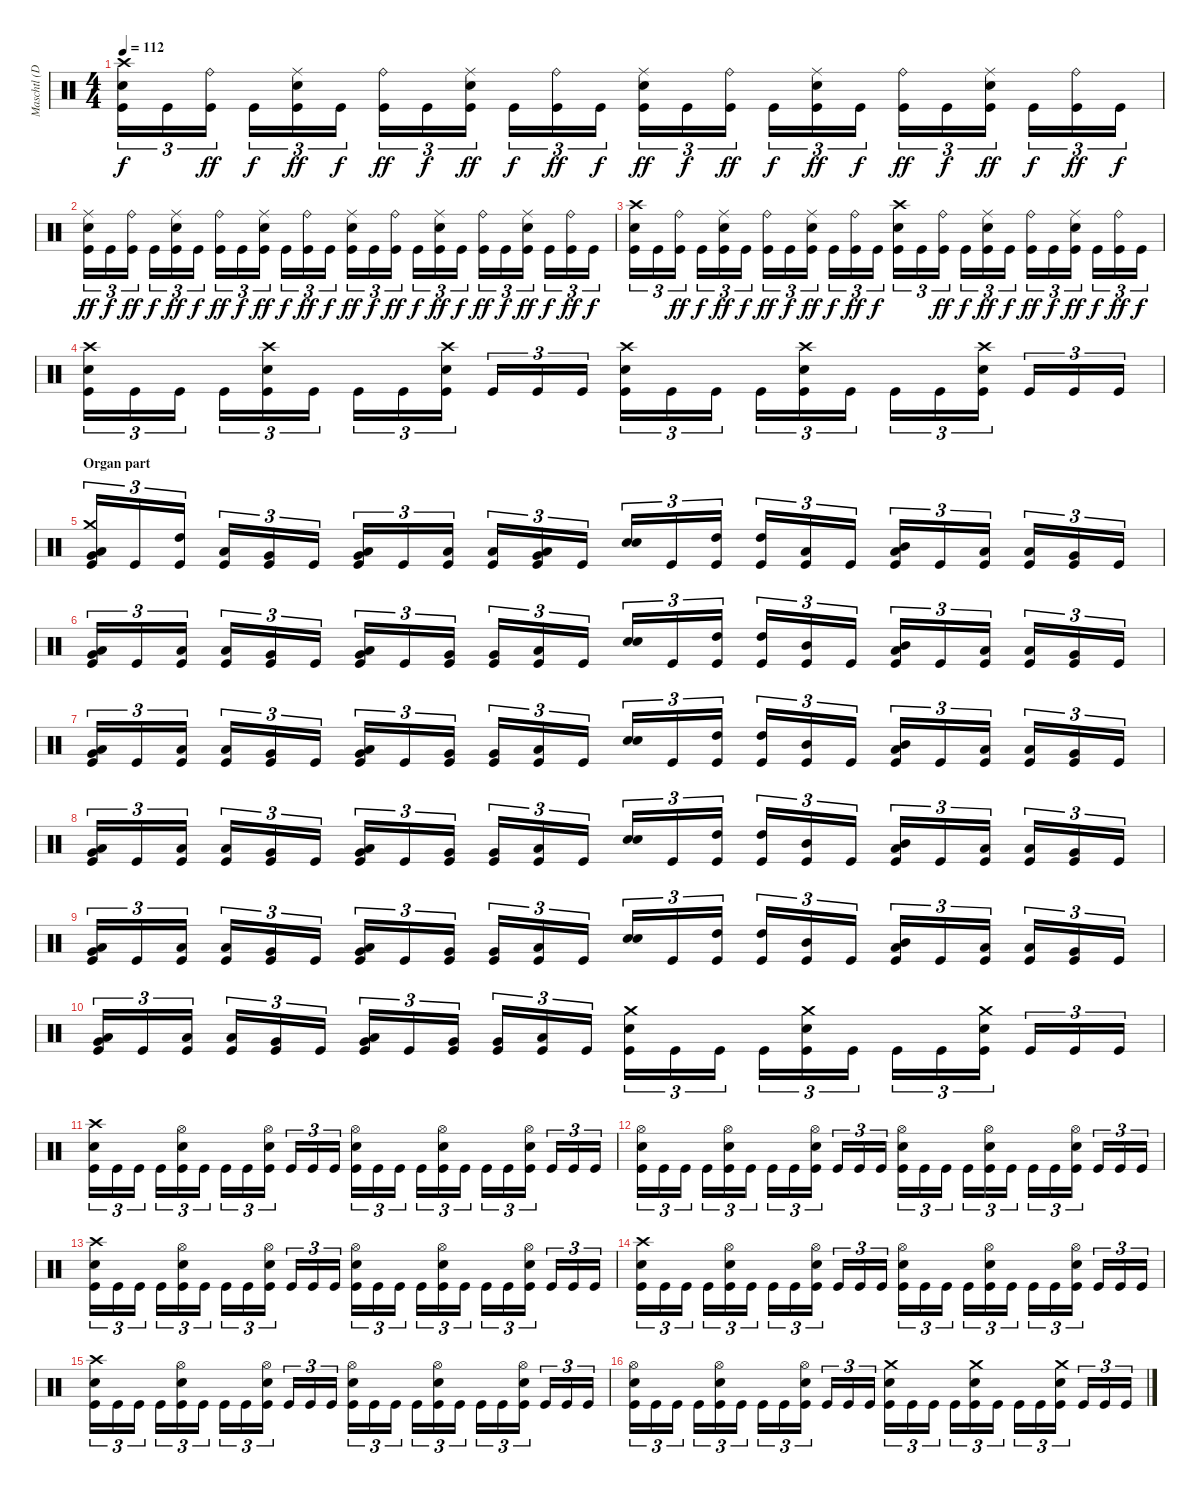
\track ("Maschtl (Drums)" "Maschtl (D") {instrument percussion}
\staff {score}
\articulation defaults
\ts (4 4)
\tempo 112
\clef neutral
\ks c
("Crash high (hit)" "Electric Snare (hit)" "Kick (hit)").16{tu (3 2) dy f} "Kick (hit)".16{tu (3 2)} ("Ride (bell)" "Kick (hit)").16{tu (3 2) dy ff} "Kick (hit)".16{tu (3 2) dy f} ("Ride (middle)" "Electric Snare (hit)" "Kick (hit)").16{tu (3 2) dy ff} "Kick (hit)".16{tu (3 2) dy f} ("Ride (bell)" "Kick (hit)").16{tu (3 2) dy ff} "Kick (hit)".16{tu (3 2) dy f} ("Ride (middle)" "Electric Snare (hit)" "Kick (hit)").16{tu (3 2) dy ff} "Kick (hit)".16{tu (3 2) dy f} ("Ride (bell)" "Kick (hit)").16{tu (3 2) dy ff} "Kick (hit)".16{tu (3 2) dy f} ("Ride (middle)" "Electric Snare (hit)" "Kick (hit)").16{tu (3 2) dy ff} "Kick (hit)".16{tu (3 2) dy f} ("Ride (bell)" "Kick (hit)").16{tu (3 2) dy ff} "Kick (hit)".16{tu (3 2) dy f} ("Ride (middle)" "Electric Snare (hit)" "Kick (hit)").16{tu (3 2) dy ff} "Kick (hit)".16{tu (3 2) dy f} ("Ride (bell)" "Kick (hit)").16{tu (3 2) dy ff} "Kick (hit)".16{tu (3 2) dy f} ("Ride (middle)" "Electric Snare (hit)" "Kick (hit)").16{tu (3 2) dy ff} "Kick (hit)".16{tu (3 2) dy f} ("Ride (bell)" "Kick (hit)").16{tu (3 2) dy ff} "Kick (hit)".16{tu (3 2) dy f} |
("Ride (middle)" "Electric Snare (hit)" "Kick (hit)").16{tu (3 2) dy ff} "Kick (hit)".16{tu (3 2) dy f} ("Ride (bell)" "Kick (hit)").16{tu (3 2) dy ff} "Kick (hit)".16{tu (3 2) dy f} ("Ride (middle)" "Electric Snare (hit)" "Kick (hit)").16{tu (3 2) dy ff} "Kick (hit)".16{tu (3 2) dy f} ("Ride (bell)" "Kick (hit)").16{tu (3 2) dy ff} "Kick (hit)".16{tu (3 2) dy f} ("Ride (middle)" "Electric Snare (hit)" "Kick (hit)").16{tu (3 2) dy ff} "Kick (hit)".16{tu (3 2) dy f} ("Ride (bell)" "Kick (hit)").16{tu (3 2) dy ff} "Kick (hit)".16{tu (3 2) dy f} ("Ride (middle)" "Electric Snare (hit)" "Kick (hit)").16{tu (3 2) dy ff} "Kick (hit)".16{tu (3 2) dy f} ("Ride (bell)" "Kick (hit)").16{tu (3 2) dy ff} "Kick (hit)".16{tu (3 2) dy f} ("Ride (middle)" "Electric Snare (hit)" "Kick (hit)").16{tu (3 2) dy ff} "Kick (hit)".16{tu (3 2) dy f} ("Ride (bell)" "Kick (hit)").16{tu (3 2) dy ff} "Kick (hit)".16{tu (3 2) dy f} ("Ride (middle)" "Electric Snare (hit)" "Kick (hit)").16{tu (3 2) dy ff} "Kick (hit)".16{tu (3 2) dy f} ("Ride (bell)" "Kick (hit)").16{tu (3 2) dy ff} "Kick (hit)".16{tu (3 2) dy f} |
("Crash high (hit)" "Electric Snare (hit)" "Kick (hit)").16{tu (3 2)} "Kick (hit)".16{tu (3 2)} ("Ride (bell)" "Kick (hit)").16{tu (3 2) dy ff} "Kick (hit)".16{tu (3 2) dy f} ("Ride (middle)" "Electric Snare (hit)" "Kick (hit)").16{tu (3 2) dy ff} "Kick (hit)".16{tu (3 2) dy f} ("Ride (bell)" "Kick (hit)").16{tu (3 2) dy ff} "Kick (hit)".16{tu (3 2) dy f} ("Ride (middle)" "Electric Snare (hit)" "Kick (hit)").16{tu (3 2) dy ff} "Kick (hit)".16{tu (3 2) dy f} ("Ride (bell)" "Kick (hit)").16{tu (3 2) dy ff} "Kick (hit)".16{tu (3 2) dy f} ("Crash high (hit)" "Electric Snare (hit)" "Kick (hit)").16{tu (3 2)} "Kick (hit)".16{tu (3 2)} ("Ride (bell)" "Kick (hit)").16{tu (3 2) dy ff} "Kick (hit)".16{tu (3 2) dy f} ("Ride (middle)" "Electric Snare (hit)" "Kick (hit)").16{tu (3 2) dy ff} "Kick (hit)".16{tu (3 2) dy f} ("Ride (bell)" "Kick (hit)").16{tu (3 2) dy ff} "Kick (hit)".16{tu (3 2) dy f} ("Ride (middle)" "Electric Snare (hit)" "Kick (hit)").16{tu (3 2) dy ff} "Kick (hit)".16{tu (3 2) dy f} ("Ride (bell)" "Kick (hit)").16{tu (3 2) dy ff} "Kick (hit)".16{tu (3 2) dy f} |
("Crash high (hit)" "Electric Snare (hit)" "Kick (hit)").16{tu (3 2)} "Kick (hit)".16{tu (3 2)} "Kick (hit)".16{tu (3 2)} "Kick (hit)".16{tu (3 2)} ("Crash high (hit)" "Electric Snare (hit)" "Kick (hit)").16{tu (3 2)} "Kick (hit)".16{tu (3 2)} "Kick (hit)".16{tu (3 2)} "Kick (hit)".16{tu (3 2)} ("Crash high (hit)" "Electric Snare (hit)" "Kick (hit)").16{tu (3 2)} "Kick (hit)".16{tu (3 2)} "Kick (hit)".16{tu (3 2)} "Kick (hit)".16{tu (3 2)} ("Crash high (hit)" "Electric Snare (hit)" "Kick (hit)").16{tu (3 2)} "Kick (hit)".16{tu (3 2)} "Kick (hit)".16{tu (3 2)} "Kick (hit)".16{tu (3 2)} ("Crash high (hit)" "Electric Snare (hit)" "Kick (hit)").16{tu (3 2)} "Kick (hit)".16{tu (3 2)} "Kick (hit)".16{tu (3 2)} "Kick (hit)".16{tu (3 2)} ("Crash high (hit)" "Electric Snare (hit)" "Kick (hit)").16{tu (3 2)} "Kick (hit)".16{tu (3 2)} "Kick (hit)".16{tu (3 2)} "Kick (hit)".16{tu (3 2)} |
\section ("" "Organ part")
("Crash medium (hit)" "Low Tom (hit)" "Very Low Tom (hit)" "Kick (hit)").16{tu (3 2)} "Kick (hit)".16{tu (3 2)} ("High Tom (hit)" "Kick (hit)").16{tu (3 2)} ("Low Tom (hit)" "Kick (hit)").16{tu (3 2)} ("Very Low Tom (hit)" "Kick (hit)").16{tu (3 2)} "Kick (hit)".16{tu (3 2)} ("Low Tom (hit)" "Very Low Tom (hit)" "Kick (hit)").16{tu (3 2) bd 60} "Kick (hit)".16{tu (3 2)} ("Low Tom (hit)" "Kick (hit)").16{tu (3 2)} ("Low Tom (hit)" "Kick (hit)").16{tu (3 2)} ("Low Tom (hit)" "Very Low Tom (hit)" "Kick (hit)").16{tu (3 2) bd 60} "Kick (hit)".16{tu (3 2)} ("Electric Snare (hit)" "Electric Snare (hit)").16{tu (3 2) bd 60} "Kick (hit)".16{tu (3 2)} ("High Tom (hit)" "Kick (hit)").16{tu (3 2)} ("High Tom (hit)" "Kick (hit)").16{tu (3 2)} ("Low Tom (hit)" "Kick (hit)").16{tu (3 2)} "Kick (hit)".16{tu (3 2)} ("Mid Tom (hit)" "Low Tom (hit)" "Kick (hit)").16{tu (3 2) bd 60} "Kick (hit)".16{tu (3 2)} ("Low Tom (hit)" "Kick (hit)").16{tu (3 2)} ("Low Tom (hit)" "Kick (hit)").16{tu (3 2)} ("Very Low Tom (hit)" "Kick (hit)").16{tu (3 2)} "Kick (hit)".16{tu (3 2)} |
("Low Tom (hit)" "Very Low Tom (hit)" "Kick (hit)").16{tu (3 2) bd 60} "Kick (hit)".16{tu (3 2)} ("Low Tom (hit)" "Kick (hit)").16{tu (3 2)} ("Low Tom (hit)" "Kick (hit)").16{tu (3 2)} ("Very Low Tom (hit)" "Kick (hit)").16{tu (3 2)} "Kick (hit)".16{tu (3 2)} ("Low Tom (hit)" "Very Low Tom (hit)" "Kick (hit)").16{tu (3 2) bd 60} "Kick (hit)".16{tu (3 2)} ("Very Low Tom (hit)" "Kick (hit)").16{tu (3 2)} ("Very Low Tom (hit)" "Kick (hit)").16{tu (3 2)} ("Low Floor Tom (hit)" "Kick (hit)").16{tu (3 2)} "Kick (hit)".16{tu (3 2)} ("Electric Snare (hit)" "Electric Snare (hit)").16{tu (3 2) bd 60} "Kick (hit)".16{tu (3 2)} ("High Tom (hit)" "Kick (hit)").16{tu (3 2)} ("High Tom (hit)" "Kick (hit)").16{tu (3 2)} ("Mid Tom (hit)" "Kick (hit)").16{tu (3 2)} "Kick (hit)".16{tu (3 2)} ("Mid Tom (hit)" "Low Tom (hit)" "Kick (hit)").16{tu (3 2) bd 60} "Kick (hit)".16{tu (3 2)} ("Low Tom (hit)" "Kick (hit)").16{tu (3 2)} ("Low Tom (hit)" "Kick (hit)").16{tu (3 2)} ("Very Low Tom (hit)" "Kick (hit)").16{tu (3 2)} "Kick (hit)".16{tu (3 2)} |
("Low Tom (hit)" "Very Low Tom (hit)" "Kick (hit)").16{tu (3 2) bd 60} "Kick (hit)".16{tu (3 2)} ("Low Tom (hit)" "Kick (hit)").16{tu (3 2)} ("Low Tom (hit)" "Kick (hit)").16{tu (3 2)} ("Very Low Tom (hit)" "Kick (hit)").16{tu (3 2)} "Kick (hit)".16{tu (3 2)} ("Low Tom (hit)" "Very Low Tom (hit)" "Kick (hit)").16{tu (3 2) bd 60} "Kick (hit)".16{tu (3 2)} ("Very Low Tom (hit)" "Kick (hit)").16{tu (3 2)} ("Very Low Tom (hit)" "Kick (hit)").16{tu (3 2)} ("Low Floor Tom (hit)" "Kick (hit)").16{tu (3 2)} "Kick (hit)".16{tu (3 2)} ("Electric Snare (hit)" "Electric Snare (hit)").16{tu (3 2) bd 60} "Kick (hit)".16{tu (3 2)} ("High Tom (hit)" "Kick (hit)").16{tu (3 2)} ("High Tom (hit)" "Kick (hit)").16{tu (3 2)} ("Mid Tom (hit)" "Kick (hit)").16{tu (3 2)} "Kick (hit)".16{tu (3 2)} ("Mid Tom (hit)" "Low Tom (hit)" "Kick (hit)").16{tu (3 2) bd 60} "Kick (hit)".16{tu (3 2)} ("Low Tom (hit)" "Kick (hit)").16{tu (3 2)} ("Low Tom (hit)" "Kick (hit)").16{tu (3 2)} ("Very Low Tom (hit)" "Kick (hit)").16{tu (3 2)} "Kick (hit)".16{tu (3 2)} |
("Low Tom (hit)" "Very Low Tom (hit)" "Kick (hit)").16{tu (3 2) bd 60} "Kick (hit)".16{tu (3 2)} ("Low Tom (hit)" "Kick (hit)").16{tu (3 2)} ("Low Tom (hit)" "Kick (hit)").16{tu (3 2)} ("Very Low Tom (hit)" "Kick (hit)").16{tu (3 2)} "Kick (hit)".16{tu (3 2)} ("Low Tom (hit)" "Very Low Tom (hit)" "Kick (hit)").16{tu (3 2) bd 60} "Kick (hit)".16{tu (3 2)} ("Very Low Tom (hit)" "Kick (hit)").16{tu (3 2)} ("Very Low Tom (hit)" "Kick (hit)").16{tu (3 2)} ("Low Floor Tom (hit)" "Kick (hit)").16{tu (3 2)} "Kick (hit)".16{tu (3 2)} ("Electric Snare (hit)" "Electric Snare (hit)").16{tu (3 2) bd 60} "Kick (hit)".16{tu (3 2)} ("High Tom (hit)" "Kick (hit)").16{tu (3 2)} ("High Tom (hit)" "Kick (hit)").16{tu (3 2)} ("Mid Tom (hit)" "Kick (hit)").16{tu (3 2)} "Kick (hit)".16{tu (3 2)} ("Mid Tom (hit)" "Low Tom (hit)" "Kick (hit)").16{tu (3 2) bd 60} "Kick (hit)".16{tu (3 2)} ("Low Tom (hit)" "Kick (hit)").16{tu (3 2)} ("Low Tom (hit)" "Kick (hit)").16{tu (3 2)} ("Very Low Tom (hit)" "Kick (hit)").16{tu (3 2)} "Kick (hit)".16{tu (3 2)} |
("Low Tom (hit)" "Very Low Tom (hit)" "Kick (hit)").16{tu (3 2) bd 60} "Kick (hit)".16{tu (3 2)} ("Low Tom (hit)" "Kick (hit)").16{tu (3 2)} ("Low Tom (hit)" "Kick (hit)").16{tu (3 2)} ("Very Low Tom (hit)" "Kick (hit)").16{tu (3 2)} "Kick (hit)".16{tu (3 2)} ("Low Tom (hit)" "Very Low Tom (hit)" "Kick (hit)").16{tu (3 2) bd 60} "Kick (hit)".16{tu (3 2)} ("Very Low Tom (hit)" "Kick (hit)").16{tu (3 2)} ("Very Low Tom (hit)" "Kick (hit)").16{tu (3 2)} ("Low Floor Tom (hit)" "Kick (hit)").16{tu (3 2)} "Kick (hit)".16{tu (3 2)} ("Electric Snare (hit)" "Electric Snare (hit)").16{tu (3 2) bd 60} "Kick (hit)".16{tu (3 2)} ("High Tom (hit)" "Kick (hit)").16{tu (3 2)} ("High Tom (hit)" "Kick (hit)").16{tu (3 2)} ("Mid Tom (hit)" "Kick (hit)").16{tu (3 2)} "Kick (hit)".16{tu (3 2)} ("Mid Tom (hit)" "Low Tom (hit)" "Kick (hit)").16{tu (3 2) bd 60} "Kick (hit)".16{tu (3 2)} ("Low Tom (hit)" "Kick (hit)").16{tu (3 2)} ("Low Tom (hit)" "Kick (hit)").16{tu (3 2)} ("Very Low Tom (hit)" "Kick (hit)").16{tu (3 2)} "Kick (hit)".16{tu (3 2)} |
("Low Tom (hit)" "Very Low Tom (hit)" "Kick (hit)").16{tu (3 2) bd 60} "Kick (hit)".16{tu (3 2)} ("Low Tom (hit)" "Kick (hit)").16{tu (3 2)} ("Low Tom (hit)" "Kick (hit)").16{tu (3 2)} ("Very Low Tom (hit)" "Kick (hit)").16{tu (3 2)} "Kick (hit)".16{tu (3 2)} ("Low Tom (hit)" "Very Low Tom (hit)" "Kick (hit)").16{tu (3 2) bd 60} "Kick (hit)".16{tu (3 2)} ("Very Low Tom (hit)" "Kick (hit)").16{tu (3 2)} ("Very Low Tom (hit)" "Kick (hit)").16{tu (3 2)} ("Low Floor Tom (hit)" "Kick (hit)").16{tu (3 2)} "Kick (hit)".16{tu (3 2)} ("Crash medium (hit)" "Electric Snare (hit)" "Kick (hit)").16{tu (3 2)} "Kick (hit)".16{tu (3 2)} "Kick (hit)".16{tu (3 2)} "Kick (hit)".16{tu (3 2)} ("Crash medium (hit)" "Electric Snare (hit)" "Kick (hit)").16{tu (3 2)} "Kick (hit)".16{tu (3 2)} "Kick (hit)".16{tu (3 2)} "Kick (hit)".16{tu (3 2)} ("Crash medium (hit)" "Electric Snare (hit)" "Kick (hit)").16{tu (3 2)} "Kick (hit)".16{tu (3 2)} "Kick (hit)".16{tu (3 2)} "Kick (hit)".16{tu (3 2)} |
("Crash high (hit)" "Electric Snare (hit)" "Kick (hit)").16{tu (3 2)} "Kick (hit)".16{tu (3 2)} "Kick (hit)".16{tu (3 2)} "Kick (hit)".16{tu (3 2)} ("Hi-Hat (open)" "Electric Snare (hit)" "Kick (hit)").16{tu (3 2)} "Kick (hit)".16{tu (3 2)} "Kick (hit)".16{tu (3 2)} "Kick (hit)".16{tu (3 2)} ("Hi-Hat (open)" "Electric Snare (hit)" "Kick (hit)").16{tu (3 2)} "Kick (hit)".16{tu (3 2)} "Kick (hit)".16{tu (3 2)} "Kick (hit)".16{tu (3 2)} ("Hi-Hat (open)" "Electric Snare (hit)" "Kick (hit)").16{tu (3 2)} "Kick (hit)".16{tu (3 2)} "Kick (hit)".16{tu (3 2)} "Kick (hit)".16{tu (3 2)} ("Hi-Hat (open)" "Electric Snare (hit)" "Kick (hit)").16{tu (3 2)} "Kick (hit)".16{tu (3 2)} "Kick (hit)".16{tu (3 2)} "Kick (hit)".16{tu (3 2)} ("Hi-Hat (open)" "Electric Snare (hit)" "Kick (hit)").16{tu (3 2)} "Kick (hit)".16{tu (3 2)} "Kick (hit)".16{tu (3 2)} "Kick (hit)".16{tu (3 2)} |
("Hi-Hat (open)" "Electric Snare (hit)" "Kick (hit)").16{tu (3 2)} "Kick (hit)".16{tu (3 2)} "Kick (hit)".16{tu (3 2)} "Kick (hit)".16{tu (3 2)} ("Hi-Hat (open)" "Electric Snare (hit)" "Kick (hit)").16{tu (3 2)} "Kick (hit)".16{tu (3 2)} "Kick (hit)".16{tu (3 2)} "Kick (hit)".16{tu (3 2)} ("Hi-Hat (open)" "Electric Snare (hit)" "Kick (hit)").16{tu (3 2)} "Kick (hit)".16{tu (3 2)} "Kick (hit)".16{tu (3 2)} "Kick (hit)".16{tu (3 2)} ("Hi-Hat (open)" "Electric Snare (hit)" "Kick (hit)").16{tu (3 2)} "Kick (hit)".16{tu (3 2)} "Kick (hit)".16{tu (3 2)} "Kick (hit)".16{tu (3 2)} ("Hi-Hat (open)" "Electric Snare (hit)" "Kick (hit)").16{tu (3 2)} "Kick (hit)".16{tu (3 2)} "Kick (hit)".16{tu (3 2)} "Kick (hit)".16{tu (3 2)} ("Hi-Hat (open)" "Electric Snare (hit)" "Kick (hit)").16{tu (3 2)} "Kick (hit)".16{tu (3 2)} "Kick (hit)".16{tu (3 2)} "Kick (hit)".16{tu (3 2)} |
("Crash high (hit)" "Electric Snare (hit)" "Kick (hit)").16{tu (3 2)} "Kick (hit)".16{tu (3 2)} "Kick (hit)".16{tu (3 2)} "Kick (hit)".16{tu (3 2)} ("Hi-Hat (open)" "Electric Snare (hit)" "Kick (hit)").16{tu (3 2)} "Kick (hit)".16{tu (3 2)} "Kick (hit)".16{tu (3 2)} "Kick (hit)".16{tu (3 2)} ("Hi-Hat (open)" "Electric Snare (hit)" "Kick (hit)").16{tu (3 2)} "Kick (hit)".16{tu (3 2)} "Kick (hit)".16{tu (3 2)} "Kick (hit)".16{tu (3 2)} ("Hi-Hat (open)" "Electric Snare (hit)" "Kick (hit)").16{tu (3 2)} "Kick (hit)".16{tu (3 2)} "Kick (hit)".16{tu (3 2)} "Kick (hit)".16{tu (3 2)} ("Hi-Hat (open)" "Electric Snare (hit)" "Kick (hit)").16{tu (3 2)} "Kick (hit)".16{tu (3 2)} "Kick (hit)".16{tu (3 2)} "Kick (hit)".16{tu (3 2)} ("Hi-Hat (open)" "Electric Snare (hit)" "Kick (hit)").16{tu (3 2)} "Kick (hit)".16{tu (3 2)} "Kick (hit)".16{tu (3 2)} "Kick (hit)".16{tu (3 2)} |
("Crash high (hit)" "Electric Snare (hit)" "Kick (hit)").16{tu (3 2)} "Kick (hit)".16{tu (3 2)} "Kick (hit)".16{tu (3 2)} "Kick (hit)".16{tu (3 2)} ("Hi-Hat (open)" "Electric Snare (hit)" "Kick (hit)").16{tu (3 2)} "Kick (hit)".16{tu (3 2)} "Kick (hit)".16{tu (3 2)} "Kick (hit)".16{tu (3 2)} ("Hi-Hat (open)" "Electric Snare (hit)" "Kick (hit)").16{tu (3 2)} "Kick (hit)".16{tu (3 2)} "Kick (hit)".16{tu (3 2)} "Kick (hit)".16{tu (3 2)} ("Hi-Hat (open)" "Electric Snare (hit)" "Kick (hit)").16{tu (3 2)} "Kick (hit)".16{tu (3 2)} "Kick (hit)".16{tu (3 2)} "Kick (hit)".16{tu (3 2)} ("Hi-Hat (open)" "Electric Snare (hit)" "Kick (hit)").16{tu (3 2)} "Kick (hit)".16{tu (3 2)} "Kick (hit)".16{tu (3 2)} "Kick (hit)".16{tu (3 2)} ("Hi-Hat (open)" "Electric Snare (hit)" "Kick (hit)").16{tu (3 2)} "Kick (hit)".16{tu (3 2)} "Kick (hit)".16{tu (3 2)} "Kick (hit)".16{tu (3 2)} |
("Crash high (hit)" "Electric Snare (hit)" "Kick (hit)").16{tu (3 2)} "Kick (hit)".16{tu (3 2)} "Kick (hit)".16{tu (3 2)} "Kick (hit)".16{tu (3 2)} ("Hi-Hat (open)" "Electric Snare (hit)" "Kick (hit)").16{tu (3 2)} "Kick (hit)".16{tu (3 2)} "Kick (hit)".16{tu (3 2)} "Kick (hit)".16{tu (3 2)} ("Hi-Hat (open)" "Electric Snare (hit)" "Kick (hit)").16{tu (3 2)} "Kick (hit)".16{tu (3 2)} "Kick (hit)".16{tu (3 2)} "Kick (hit)".16{tu (3 2)} ("Hi-Hat (open)" "Electric Snare (hit)" "Kick (hit)").16{tu (3 2)} "Kick (hit)".16{tu (3 2)} "Kick (hit)".16{tu (3 2)} "Kick (hit)".16{tu (3 2)} ("Hi-Hat (open)" "Electric Snare (hit)" "Kick (hit)").16{tu (3 2)} "Kick (hit)".16{tu (3 2)} "Kick (hit)".16{tu (3 2)} "Kick (hit)".16{tu (3 2)} ("Hi-Hat (open)" "Electric Snare (hit)" "Kick (hit)").16{tu (3 2)} "Kick (hit)".16{tu (3 2)} "Kick (hit)".16{tu (3 2)} "Kick (hit)".16{tu (3 2)} |
("Hi-Hat (open)" "Electric Snare (hit)" "Kick (hit)").16{tu (3 2)} "Kick (hit)".16{tu (3 2)} "Kick (hit)".16{tu (3 2)} "Kick (hit)".16{tu (3 2)} ("Hi-Hat (open)" "Electric Snare (hit)" "Kick (hit)").16{tu (3 2)} "Kick (hit)".16{tu (3 2)} "Kick (hit)".16{tu (3 2)} "Kick (hit)".16{tu (3 2)} ("Hi-Hat (open)" "Electric Snare (hit)" "Kick (hit)").16{tu (3 2)} "Kick (hit)".16{tu (3 2)} "Kick (hit)".16{tu (3 2)} "Kick (hit)".16{tu (3 2)} ("Crash medium (hit)" "Electric Snare (hit)" "Kick (hit)").16{tu (3 2)} "Kick (hit)".16{tu (3 2)} "Kick (hit)".16{tu (3 2)} "Kick (hit)".16{tu (3 2)} ("Crash medium (hit)" "Electric Snare (hit)" "Kick (hit)").16{tu (3 2)} "Kick (hit)".16{tu (3 2)} "Kick (hit)".16{tu (3 2)} "Kick (hit)".16{tu (3 2)} ("Crash medium (hit)" "Electric Snare (hit)" "Kick (hit)").16{tu (3 2)} "Kick (hit)".16{tu (3 2)} "Kick (hit)".16{tu (3 2)} "Kick (hit)".16{tu (3 2)}
